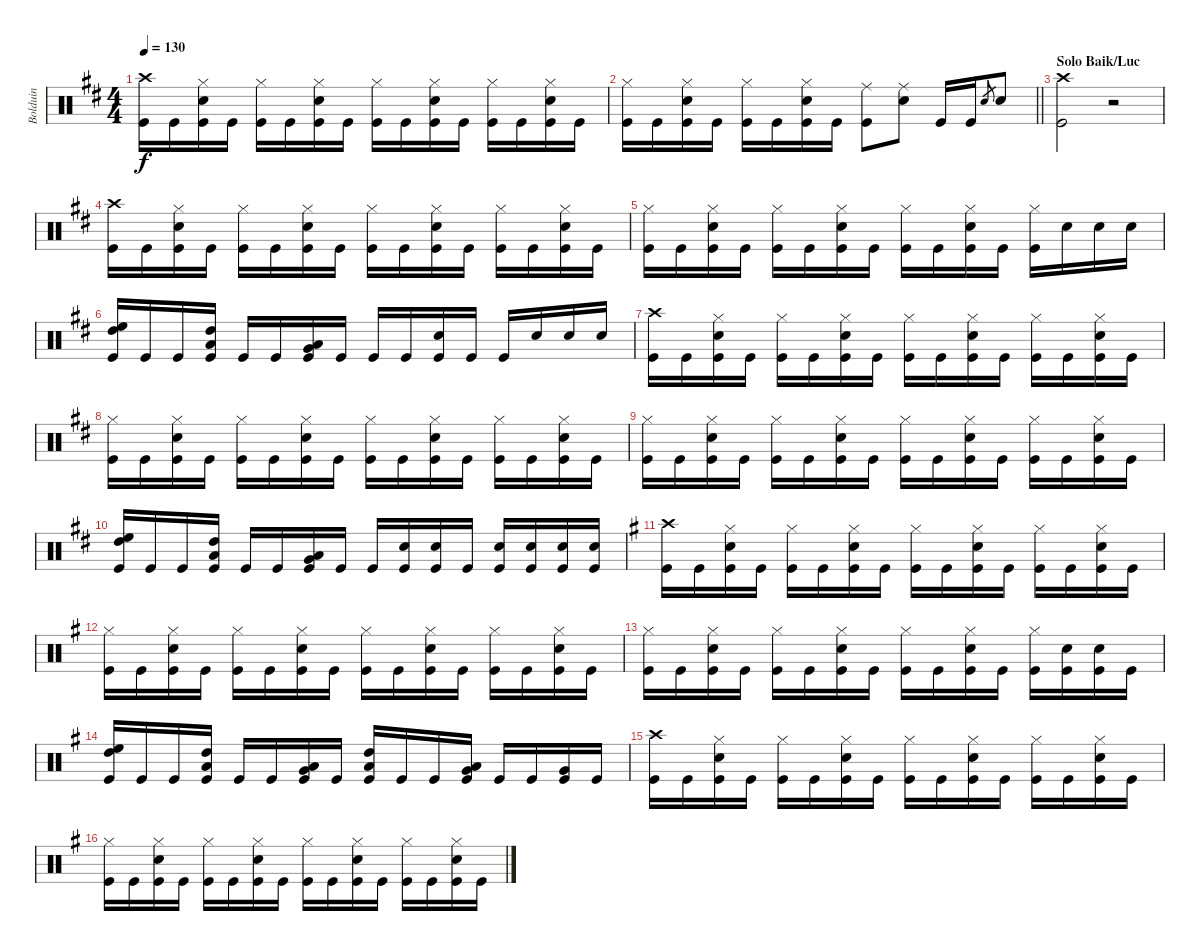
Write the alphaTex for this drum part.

\track ("Bolduin" "Bolduin") {instrument percussion}
\staff {score}
\articulation defaults
\ts (4 4)
\tempo 130
\clef neutral
\ks bminor
("Crash high (hit)" "Kick (hit)").16{dy f} "Kick (hit)".16 ("Hi-Hat (closed)" "Kick (hit)" "Snare (hit) 2").16 "Kick (hit)".16 ("Hi-Hat (closed)" "Kick (hit)").16 "Kick (hit)".16 ("Hi-Hat (closed)" "Kick (hit)" "Snare (hit) 2").16 "Kick (hit)".16 ("Hi-Hat (closed)" "Kick (hit)").16 "Kick (hit)".16 ("Hi-Hat (closed)" "Kick (hit)" "Snare (hit) 2").16 "Kick (hit)".16 ("Hi-Hat (closed)" "Kick (hit)").16 "Kick (hit)".16 ("Hi-Hat (closed)" "Kick (hit)" "Snare (hit) 2").16 "Kick (hit)".16 |
\barLineRight lightlight
("Hi-Hat (closed)" "Kick (hit)").16 "Kick (hit)".16 ("Hi-Hat (closed)" "Kick (hit)" "Snare (hit) 2").16 "Kick (hit)".16 ("Hi-Hat (closed)" "Kick (hit)").16 "Kick (hit)".16 ("Hi-Hat (closed)" "Kick (hit)" "Snare (hit) 2").16 "Kick (hit)".16 ("Ride (middle)" "Kick (hit)").8 ("Ride (middle)" "Snare (hit) 2").8 "Kick (hit)".16 "Kick (hit)".16 "Snare (hit) 2".8{gr} "Snare (hit) 2".8 |
\section ("" "Solo Baik/Luc")
("Crash high (hit)" "Kick (hit)").2 r.2 |
("Crash high (hit)" "Kick (hit)").16 "Kick (hit)".16 ("Hi-Hat (closed)" "Kick (hit)" "Snare (hit) 2").16 "Kick (hit)".16 ("Hi-Hat (closed)" "Kick (hit)").16 "Kick (hit)".16 ("Hi-Hat (closed)" "Kick (hit)" "Snare (hit) 2").16 "Kick (hit)".16 ("Hi-Hat (closed)" "Kick (hit)").16 "Kick (hit)".16 ("Hi-Hat (closed)" "Kick (hit)" "Snare (hit) 2").16 "Kick (hit)".16 ("Hi-Hat (closed)" "Kick (hit)").16 "Kick (hit)".16 ("Hi-Hat (closed)" "Kick (hit)" "Snare (hit) 2").16 "Kick (hit)".16 |
("Hi-Hat (closed)" "Kick (hit)").16 "Kick (hit)".16 ("Hi-Hat (closed)" "Kick (hit)" "Snare (hit) 2").16 "Kick (hit)".16 ("Hi-Hat (closed)" "Kick (hit)").16 "Kick (hit)".16 ("Hi-Hat (closed)" "Kick (hit)" "Snare (hit) 2").16 "Kick (hit)".16 ("Hi-Hat (closed)" "Kick (hit)").16 "Kick (hit)".16 ("Hi-Hat (closed)" "Kick (hit)" "Snare (hit) 2").16 "Kick (hit)".16 ("Hi-Hat (closed)" "Kick (hit)").16 "Snare (hit) 2".16 "Snare (hit) 2".16 "Snare (hit) 2".16 |
("Kick (hit)" "High Floor Tom (hit)" "High Tom (hit)").16 "Kick (hit)".16 "Kick (hit)".16 ("Kick (hit)" "High Tom (hit)" "Low Tom (hit)").16 "Kick (hit)".16 "Kick (hit)".16 ("Kick (hit)" "Low Tom (hit)" "Very Low Tom (hit)").16 "Kick (hit)".16 "Kick (hit)".16 "Kick (hit)".16 ("Kick (hit)" "Snare (hit) 2").16 "Kick (hit)".16 "Kick (hit)".16 "Snare (hit) 2".16 "Snare (hit) 2".16 "Snare (hit) 2".16 |
("Crash high (hit)" "Kick (hit)").16 "Kick (hit)".16 ("Hi-Hat (closed)" "Kick (hit)" "Snare (hit) 2").16 "Kick (hit)".16 ("Hi-Hat (closed)" "Kick (hit)").16 "Kick (hit)".16 ("Hi-Hat (closed)" "Kick (hit)" "Snare (hit) 2").16 "Kick (hit)".16 ("Hi-Hat (closed)" "Kick (hit)").16 "Kick (hit)".16 ("Hi-Hat (closed)" "Kick (hit)" "Snare (hit) 2").16 "Kick (hit)".16 ("Hi-Hat (closed)" "Kick (hit)").16 "Kick (hit)".16 ("Hi-Hat (closed)" "Kick (hit)" "Snare (hit) 2").16 "Kick (hit)".16 |
("Hi-Hat (closed)" "Kick (hit)").16 "Kick (hit)".16 ("Hi-Hat (closed)" "Kick (hit)" "Snare (hit) 2").16 "Kick (hit)".16 ("Hi-Hat (closed)" "Kick (hit)").16 "Kick (hit)".16 ("Hi-Hat (closed)" "Kick (hit)" "Snare (hit) 2").16 "Kick (hit)".16 ("Hi-Hat (closed)" "Kick (hit)").16 "Kick (hit)".16 ("Hi-Hat (closed)" "Kick (hit)" "Snare (hit) 2").16 "Kick (hit)".16 ("Hi-Hat (closed)" "Kick (hit)").16 "Kick (hit)".16 ("Hi-Hat (closed)" "Kick (hit)" "Snare (hit) 2").16 "Kick (hit)".16 |
("Hi-Hat (closed)" "Kick (hit)").16 "Kick (hit)".16 ("Hi-Hat (closed)" "Kick (hit)" "Snare (hit) 2").16 "Kick (hit)".16 ("Hi-Hat (closed)" "Kick (hit)").16 "Kick (hit)".16 ("Hi-Hat (closed)" "Kick (hit)" "Snare (hit) 2").16 "Kick (hit)".16 ("Hi-Hat (closed)" "Kick (hit)").16 "Kick (hit)".16 ("Hi-Hat (closed)" "Kick (hit)" "Snare (hit) 2").16 "Kick (hit)".16 ("Hi-Hat (closed)" "Kick (hit)").16 "Kick (hit)".16 ("Hi-Hat (closed)" "Kick (hit)" "Snare (hit) 2").16 "Kick (hit)".16 |
("Kick (hit)" "High Floor Tom (hit)" "High Tom (hit)").16 "Kick (hit)".16 "Kick (hit)".16 ("Kick (hit)" "High Tom (hit)" "Low Tom (hit)").16 "Kick (hit)".16 "Kick (hit)".16 ("Kick (hit)" "Low Tom (hit)" "Very Low Tom (hit)").16 "Kick (hit)".16 "Kick (hit)".16 ("Snare (hit) 2" "Kick (hit)").16 ("Snare (hit) 2" "Kick (hit)").16 "Kick (hit)".16 ("Snare (hit) 2" "Kick (hit)").16 ("Snare (hit) 2" "Kick (hit)").16 ("Snare (hit) 2" "Kick (hit)").16 ("Snare (hit) 2" "Kick (hit)").16 |
\ks eminor
("Crash high (hit)" "Kick (hit)").16 "Kick (hit)".16 ("Hi-Hat (closed)" "Kick (hit)" "Snare (hit) 2").16 "Kick (hit)".16 ("Hi-Hat (closed)" "Kick (hit)").16 "Kick (hit)".16 ("Hi-Hat (closed)" "Kick (hit)" "Snare (hit) 2").16 "Kick (hit)".16 ("Hi-Hat (closed)" "Kick (hit)").16 "Kick (hit)".16 ("Hi-Hat (closed)" "Kick (hit)" "Snare (hit) 2").16 "Kick (hit)".16 ("Hi-Hat (closed)" "Kick (hit)").16 "Kick (hit)".16 ("Hi-Hat (closed)" "Kick (hit)" "Snare (hit) 2").16 "Kick (hit)".16 |
("Hi-Hat (closed)" "Kick (hit)").16 "Kick (hit)".16 ("Hi-Hat (closed)" "Kick (hit)" "Snare (hit) 2").16 "Kick (hit)".16 ("Hi-Hat (closed)" "Kick (hit)").16 "Kick (hit)".16 ("Hi-Hat (closed)" "Kick (hit)" "Snare (hit) 2").16 "Kick (hit)".16 ("Hi-Hat (closed)" "Kick (hit)").16 "Kick (hit)".16 ("Hi-Hat (closed)" "Kick (hit)" "Snare (hit) 2").16 "Kick (hit)".16 ("Hi-Hat (closed)" "Kick (hit)").16 "Kick (hit)".16 ("Hi-Hat (closed)" "Kick (hit)" "Snare (hit) 2").16 "Kick (hit)".16 |
("Hi-Hat (closed)" "Kick (hit)").16 "Kick (hit)".16 ("Hi-Hat (closed)" "Kick (hit)" "Snare (hit) 2").16 "Kick (hit)".16 ("Hi-Hat (closed)" "Kick (hit)").16 "Kick (hit)".16 ("Hi-Hat (closed)" "Kick (hit)" "Snare (hit) 2").16 "Kick (hit)".16 ("Hi-Hat (closed)" "Kick (hit)").16 "Kick (hit)".16 ("Hi-Hat (closed)" "Kick (hit)" "Snare (hit) 2").16 "Kick (hit)".16 ("Hi-Hat (closed)" "Kick (hit)").16 ("Snare (hit) 2" "Kick (hit)").16 ("Kick (hit)" "Snare (hit) 2").16 "Kick (hit)".16 |
("Kick (hit)" "High Floor Tom (hit)" "High Tom (hit)").16 "Kick (hit)".16 "Kick (hit)".16 ("Kick (hit)" "High Tom (hit)" "Low Tom (hit)").16 "Kick (hit)".16 "Kick (hit)".16 ("Kick (hit)" "Low Tom (hit)" "Very Low Tom (hit)").16 "Kick (hit)".16 ("High Tom (hit)" "Kick (hit)" "Low Tom (hit)").16 "Kick (hit)".16 "Kick (hit)".16 ("Low Tom (hit)" "Kick (hit)" "Very Low Tom (hit)").16 "Kick (hit)".16 "Kick (hit)".16 ("Kick (hit)" "Very Low Tom (hit)").16 "Kick (hit)".16 |
("Crash high (hit)" "Kick (hit)").16 "Kick (hit)".16 ("Hi-Hat (closed)" "Kick (hit)" "Snare (hit) 2").16 "Kick (hit)".16 ("Hi-Hat (closed)" "Kick (hit)").16 "Kick (hit)".16 ("Hi-Hat (closed)" "Kick (hit)" "Snare (hit) 2").16 "Kick (hit)".16 ("Hi-Hat (closed)" "Kick (hit)").16 "Kick (hit)".16 ("Hi-Hat (closed)" "Kick (hit)" "Snare (hit) 2").16 "Kick (hit)".16 ("Hi-Hat (closed)" "Kick (hit)").16 "Kick (hit)".16 ("Hi-Hat (closed)" "Kick (hit)" "Snare (hit) 2").16 "Kick (hit)".16 |
("Hi-Hat (closed)" "Kick (hit)").16 "Kick (hit)".16 ("Hi-Hat (closed)" "Kick (hit)" "Snare (hit) 2").16 "Kick (hit)".16 ("Hi-Hat (closed)" "Kick (hit)").16 "Kick (hit)".16 ("Hi-Hat (closed)" "Kick (hit)" "Snare (hit) 2").16 "Kick (hit)".16 ("Hi-Hat (closed)" "Kick (hit)").16 "Kick (hit)".16 ("Hi-Hat (closed)" "Kick (hit)" "Snare (hit) 2").16 "Kick (hit)".16 ("Hi-Hat (closed)" "Kick (hit)").16 "Kick (hit)".16 ("Hi-Hat (closed)" "Kick (hit)" "Snare (hit) 2").16 "Kick (hit)".16
